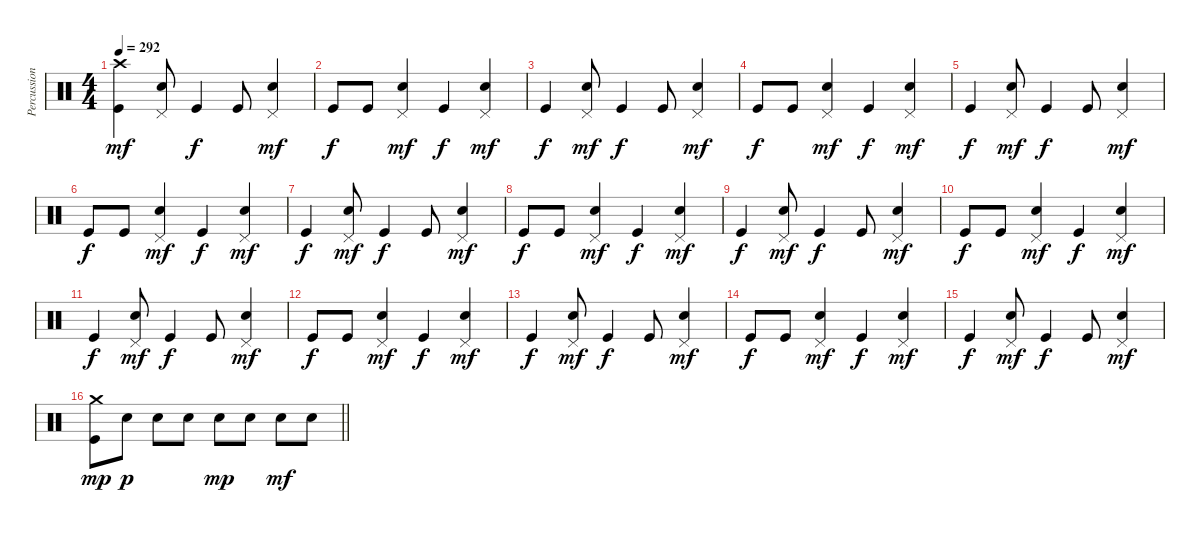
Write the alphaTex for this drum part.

\track ("Percussion" "Percussion") {instrument percussion}
\staff {score}
\articulation defaults
\ts (4 4)
\tempo 292
\clef neutral
\ks c
("Crash high (hit)" "Kick (hit)").4{dy mf} ("Pedal Hi-Hat (hit)" "Electric Snare (hit)").8 "Kick (hit)".4{dy f} "Kick (hit)".8 ("Pedal Hi-Hat (hit)" "Electric Snare (hit)").4{dy mf} |
"Kick (hit)".8{dy f} "Kick (hit)".8 ("Pedal Hi-Hat (hit)" "Electric Snare (hit)").4{dy mf} "Kick (hit)".4{dy f} ("Pedal Hi-Hat (hit)" "Electric Snare (hit)").4{dy mf} |
"Kick (hit)".4{dy f} ("Pedal Hi-Hat (hit)" "Electric Snare (hit)").8{dy mf} "Kick (hit)".4{dy f} "Kick (hit)".8 ("Pedal Hi-Hat (hit)" "Electric Snare (hit)").4{dy mf} |
"Kick (hit)".8{dy f} "Kick (hit)".8 ("Pedal Hi-Hat (hit)" "Electric Snare (hit)").4{dy mf} "Kick (hit)".4{dy f} ("Pedal Hi-Hat (hit)" "Electric Snare (hit)").4{dy mf} |
"Kick (hit)".4{dy f} ("Pedal Hi-Hat (hit)" "Electric Snare (hit)").8{dy mf} "Kick (hit)".4{dy f} "Kick (hit)".8 ("Pedal Hi-Hat (hit)" "Electric Snare (hit)").4{dy mf} |
"Kick (hit)".8{dy f} "Kick (hit)".8 ("Pedal Hi-Hat (hit)" "Electric Snare (hit)").4{dy mf} "Kick (hit)".4{dy f} ("Pedal Hi-Hat (hit)" "Electric Snare (hit)").4{dy mf} |
"Kick (hit)".4{dy f} ("Pedal Hi-Hat (hit)" "Electric Snare (hit)").8{dy mf} "Kick (hit)".4{dy f} "Kick (hit)".8 ("Pedal Hi-Hat (hit)" "Electric Snare (hit)").4{dy mf} |
"Kick (hit)".8{dy f} "Kick (hit)".8 ("Pedal Hi-Hat (hit)" "Electric Snare (hit)").4{dy mf} "Kick (hit)".4{dy f} ("Pedal Hi-Hat (hit)" "Electric Snare (hit)").4{dy mf} |
"Kick (hit)".4{dy f} ("Pedal Hi-Hat (hit)" "Electric Snare (hit)").8{dy mf} "Kick (hit)".4{dy f} "Kick (hit)".8 ("Pedal Hi-Hat (hit)" "Electric Snare (hit)").4{dy mf} |
"Kick (hit)".8{dy f} "Kick (hit)".8 ("Pedal Hi-Hat (hit)" "Electric Snare (hit)").4{dy mf} "Kick (hit)".4{dy f} ("Pedal Hi-Hat (hit)" "Electric Snare (hit)").4{dy mf} |
"Kick (hit)".4{dy f} ("Pedal Hi-Hat (hit)" "Electric Snare (hit)").8{dy mf} "Kick (hit)".4{dy f} "Kick (hit)".8 ("Pedal Hi-Hat (hit)" "Electric Snare (hit)").4{dy mf} |
"Kick (hit)".8{dy f} "Kick (hit)".8 ("Pedal Hi-Hat (hit)" "Electric Snare (hit)").4{dy mf} "Kick (hit)".4{dy f} ("Pedal Hi-Hat (hit)" "Electric Snare (hit)").4{dy mf} |
"Kick (hit)".4{dy f} ("Pedal Hi-Hat (hit)" "Electric Snare (hit)").8{dy mf} "Kick (hit)".4{dy f} "Kick (hit)".8 ("Pedal Hi-Hat (hit)" "Electric Snare (hit)").4{dy mf} |
"Kick (hit)".8{dy f} "Kick (hit)".8 ("Pedal Hi-Hat (hit)" "Electric Snare (hit)").4{dy mf} "Kick (hit)".4{dy f} ("Pedal Hi-Hat (hit)" "Electric Snare (hit)").4{dy mf} |
"Kick (hit)".4{dy f} ("Pedal Hi-Hat (hit)" "Electric Snare (hit)").8{dy mf} "Kick (hit)".4{dy f} "Kick (hit)".8 ("Pedal Hi-Hat (hit)" "Electric Snare (hit)").4{dy mf} |
\barLineRight lightlight
("Crash medium (hit)" "Kick (hit)").8{dy mp} "Electric Snare (hit)".8{dy p} "Electric Snare (hit)".8 "Electric Snare (hit)".8 "Electric Snare (hit)".8{dy mp} "Electric Snare (hit)".8 "Electric Snare (hit)".8{dy mf} "Electric Snare (hit)".8
